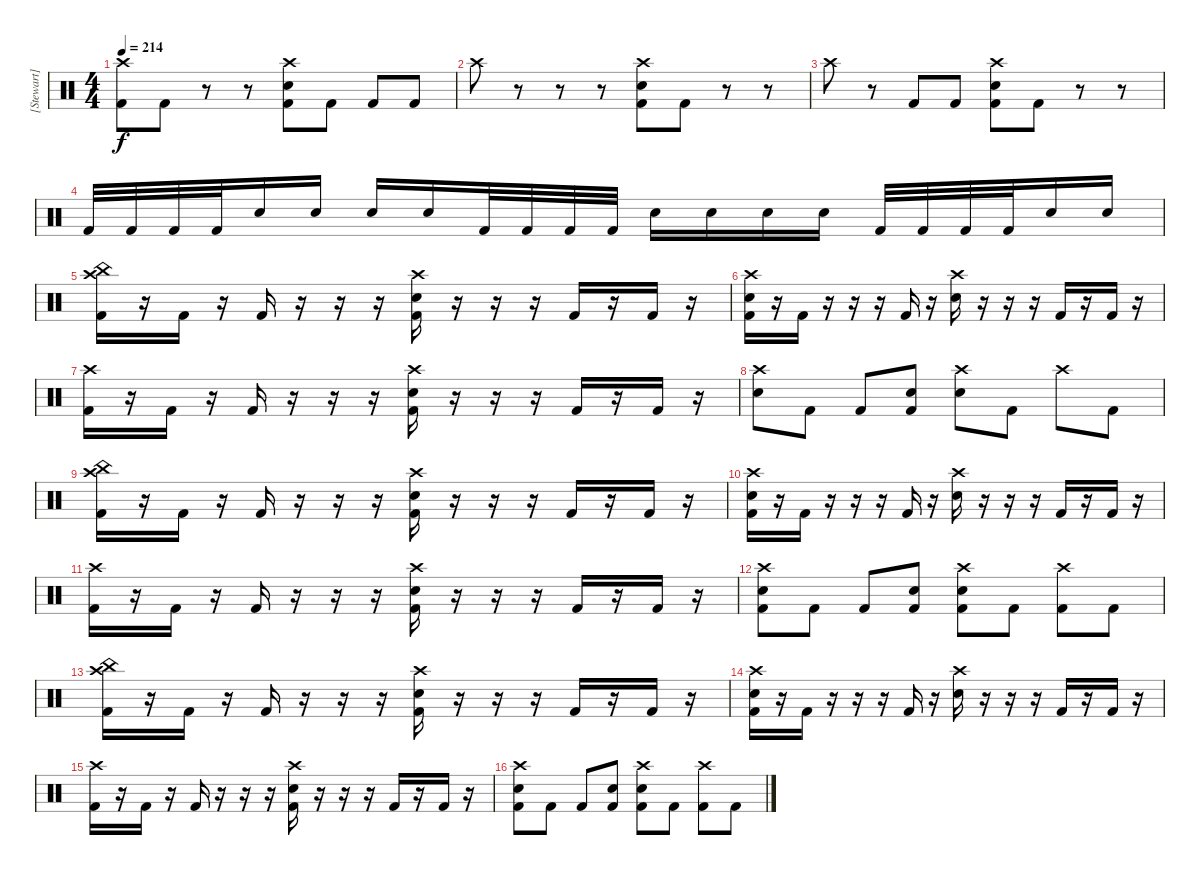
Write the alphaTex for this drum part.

\track ("[Stewart]" "[Stewart]") {instrument percussion}
\staff {score}
\articulation defaults
\ts (4 4)
\tempo 214
\clef neutral
\ks c
("Crash high (hit)" "Kick (hit) 2").8{dy f} "Kick (hit) 2".8 r.8 r.8 ("Crash high (hit)" "Electric Snare (hit)" "Kick (hit) 2").8 "Kick (hit) 2".8 "Kick (hit) 2".8 "Kick (hit) 2".8 |
"Crash high (hit)".8 r.8 r.8 r.8 ("Crash high (hit)" "Electric Snare (hit)" "Kick (hit) 2").8 "Kick (hit) 2".8 r.8 r.8 |
"Crash high (hit)".8 r.8 "Kick (hit) 2".8 "Kick (hit) 2".8 ("Crash high (hit)" "Electric Snare (hit)" "Kick (hit) 2").8 "Kick (hit) 2".8 r.8 r.8 |
"Kick (hit) 2".32 "Kick (hit) 2".32 "Kick (hit) 2".32 "Kick (hit) 2".32 "Electric Snare (hit)".16 "Electric Snare (hit)".16 "Electric Snare (hit)".16 "Electric Snare (hit)".16 "Kick (hit) 2".32 "Kick (hit) 2".32 "Kick (hit) 2".32 "Kick (hit) 2".32 "Electric Snare (hit)".16 "Electric Snare (hit)".16 "Electric Snare (hit)".16 "Electric Snare (hit)".16 "Kick (hit) 2".32 "Kick (hit) 2".32 "Kick (hit) 2".32 "Kick (hit) 2".32 "Electric Snare (hit)".16 "Electric Snare (hit)".16 |
("China (hit)" "Crash high (hit)" "Kick (hit) 2").16 r.16 "Kick (hit) 2".16 r.16 "Kick (hit) 2".16 r.16 r.16 r.16 ("Crash high (hit)" "Electric Snare (hit)" "Kick (hit) 2").16 r.16 r.16 r.16 "Kick (hit) 2".16 r.16 "Kick (hit) 2".16 r.16 |
("Crash high (hit)" "Electric Snare (hit)" "Kick (hit) 2").16 r.16 "Kick (hit) 2".16 r.16 r.16 r.16 "Kick (hit) 2".16 r.16 ("Crash high (hit)" "Electric Snare (hit)").16 r.16 r.16 r.16 "Kick (hit) 2".16 r.16 "Kick (hit) 2".16 r.16 |
("Crash high (hit)" "Kick (hit) 2").16 r.16 "Kick (hit) 2".16 r.16 "Kick (hit) 2".16 r.16 r.16 r.16 ("Crash high (hit)" "Electric Snare (hit)" "Kick (hit) 2").16 r.16 r.16 r.16 "Kick (hit) 2".16 r.16 "Kick (hit) 2".16 r.16 |
("Crash high (hit)" "Electric Snare (hit)").8 "Kick (hit) 2".8 "Kick (hit) 2".8 ("Electric Snare (hit)" "Kick (hit) 2").8 ("Crash high (hit)" "Electric Snare (hit)").8 "Kick (hit) 2".8 "Crash high (hit)".8 "Kick (hit) 2".8 |
("China (hit)" "Crash high (hit)" "Kick (hit) 2").16 r.16 "Kick (hit) 2".16 r.16 "Kick (hit) 2".16 r.16 r.16 r.16 ("Crash high (hit)" "Electric Snare (hit)" "Kick (hit) 2").16 r.16 r.16 r.16 "Kick (hit) 2".16 r.16 "Kick (hit) 2".16 r.16 |
("Crash high (hit)" "Electric Snare (hit)" "Kick (hit) 2").16 r.16 "Kick (hit) 2".16 r.16 r.16 r.16 "Kick (hit) 2".16 r.16 ("Crash high (hit)" "Electric Snare (hit)").16 r.16 r.16 r.16 "Kick (hit) 2".16 r.16 "Kick (hit) 2".16 r.16 |
("Crash high (hit)" "Kick (hit) 2").16 r.16 "Kick (hit) 2".16 r.16 "Kick (hit) 2".16 r.16 r.16 r.16 ("Crash high (hit)" "Electric Snare (hit)" "Kick (hit) 2").16 r.16 r.16 r.16 "Kick (hit) 2".16 r.16 "Kick (hit) 2".16 r.16 |
("Crash high (hit)" "Electric Snare (hit)" "Kick (hit) 2").8 "Kick (hit) 2".8 "Kick (hit) 2".8 ("Electric Snare (hit)" "Kick (hit) 2").8 ("Crash high (hit)" "Electric Snare (hit)" "Kick (hit) 2").8 "Kick (hit) 2".8 ("Crash high (hit)" "Kick (hit) 2").8 "Kick (hit) 2".8 |
("China (hit)" "Crash high (hit)" "Kick (hit) 2").16 r.16 "Kick (hit) 2".16 r.16 "Kick (hit) 2".16 r.16 r.16 r.16 ("Crash high (hit)" "Electric Snare (hit)" "Kick (hit) 2").16 r.16 r.16 r.16 "Kick (hit) 2".16 r.16 "Kick (hit) 2".16 r.16 |
("Crash high (hit)" "Electric Snare (hit)" "Kick (hit) 2").16 r.16 "Kick (hit) 2".16 r.16 r.16 r.16 "Kick (hit) 2".16 r.16 ("Crash high (hit)" "Electric Snare (hit)").16 r.16 r.16 r.16 "Kick (hit) 2".16 r.16 "Kick (hit) 2".16 r.16 |
("Crash high (hit)" "Kick (hit) 2").16 r.16 "Kick (hit) 2".16 r.16 "Kick (hit) 2".16 r.16 r.16 r.16 ("Crash high (hit)" "Electric Snare (hit)" "Kick (hit) 2").16 r.16 r.16 r.16 "Kick (hit) 2".16 r.16 "Kick (hit) 2".16 r.16 |
("Crash high (hit)" "Electric Snare (hit)" "Kick (hit) 2").8 "Kick (hit) 2".8 "Kick (hit) 2".8 ("Electric Snare (hit)" "Kick (hit) 2").8 ("Crash high (hit)" "Electric Snare (hit)" "Kick (hit) 2").8 "Kick (hit) 2".8 ("Crash high (hit)" "Kick (hit) 2").8 "Kick (hit) 2".8
